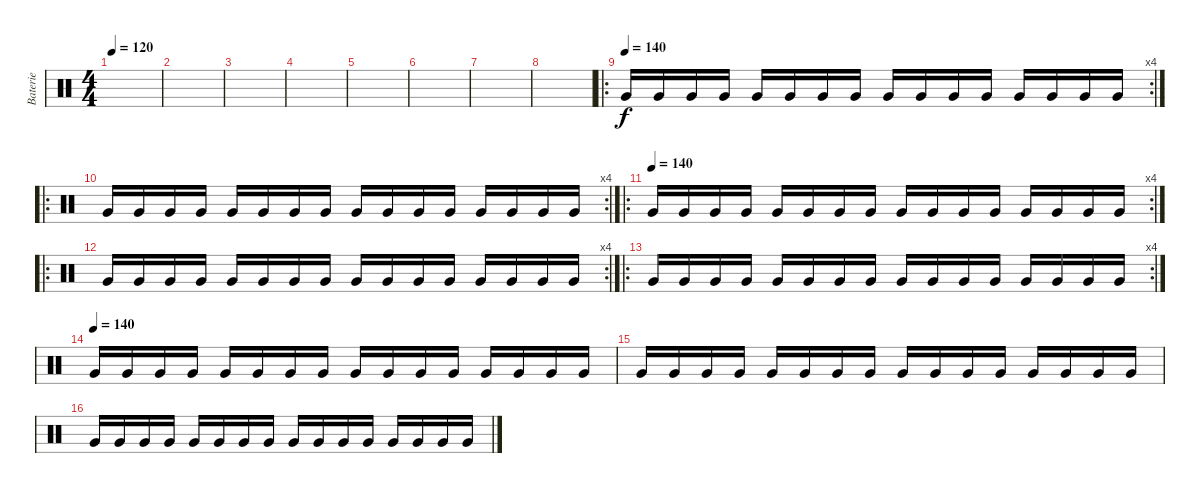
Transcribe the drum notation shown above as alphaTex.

\track ("Baterie" "Baterie") {instrument percussion}
\staff {score}
\articulation defaults
\ts (4 4)
\tempo 120
\tempo 100
\tempo 120
\clef neutral
\ks c
|
|
|
|
|
|
|
|
\ro
\rc 4
\tempo (140)
"Very Low Tom (hit)".16 "Very Low Tom (hit)".16 "Very Low Tom (hit)".16 "Very Low Tom (hit)".16 "Very Low Tom (hit)".16 "Very Low Tom (hit)".16 "Very Low Tom (hit)".16 "Very Low Tom (hit)".16 "Very Low Tom (hit)".16 "Very Low Tom (hit)".16 "Very Low Tom (hit)".16 "Very Low Tom (hit)".16 "Very Low Tom (hit)".16 "Very Low Tom (hit)".16 "Very Low Tom (hit)".16 "Very Low Tom (hit)".16 |
\ro
\rc 4 "Very Low Tom (hit)".16 "Very Low Tom (hit)".16 "Very Low Tom (hit)".16 "Very Low Tom (hit)".16 "Very Low Tom (hit)".16 "Very Low Tom (hit)".16 "Very Low Tom (hit)".16 "Very Low Tom (hit)".16 "Very Low Tom (hit)".16 "Very Low Tom (hit)".16 "Very Low Tom (hit)".16 "Very Low Tom (hit)".16 "Very Low Tom (hit)".16 "Very Low Tom (hit)".16 "Very Low Tom (hit)".16 "Very Low Tom (hit)".16
|
\ro
\rc 4
\tempo (140)
"Very Low Tom (hit)".16 "Very Low Tom (hit)".16 "Very Low Tom (hit)".16 "Very Low Tom (hit)".16 "Very Low Tom (hit)".16 "Very Low Tom (hit)".16 "Very Low Tom (hit)".16 "Very Low Tom (hit)".16 "Very Low Tom (hit)".16 "Very Low Tom (hit)".16 "Very Low Tom (hit)".16 "Very Low Tom (hit)".16 "Very Low Tom (hit)".16 "Very Low Tom (hit)".16 "Very Low Tom (hit)".16 "Very Low Tom (hit)".16 |
\ro
\rc 4 "Very Low Tom (hit)".16 "Very Low Tom (hit)".16 "Very Low Tom (hit)".16 "Very Low Tom (hit)".16 "Very Low Tom (hit)".16 "Very Low Tom (hit)".16 "Very Low Tom (hit)".16 "Very Low Tom (hit)".16 "Very Low Tom (hit)".16 "Very Low Tom (hit)".16 "Very Low Tom (hit)".16 "Very Low Tom (hit)".16 "Very Low Tom (hit)".16 "Very Low Tom (hit)".16 "Very Low Tom (hit)".16 "Very Low Tom (hit)".16
|
\ro
\rc 4 "Very Low Tom (hit)".16 "Very Low Tom (hit)".16 "Very Low Tom (hit)".16 "Very Low Tom (hit)".16 "Very Low Tom (hit)".16 "Very Low Tom (hit)".16 "Very Low Tom (hit)".16 "Very Low Tom (hit)".16 "Very Low Tom (hit)".16 "Very Low Tom (hit)".16 "Very Low Tom (hit)".16 "Very Low Tom (hit)".16 "Very Low Tom (hit)".16 "Very Low Tom (hit)".16 "Very Low Tom (hit)".16 "Very Low Tom (hit)".16
|
\tempo (140)
"Very Low Tom (hit)".16 "Very Low Tom (hit)".16 "Very Low Tom (hit)".16 "Very Low Tom (hit)".16 "Very Low Tom (hit)".16 "Very Low Tom (hit)".16 "Very Low Tom (hit)".16 "Very Low Tom (hit)".16 "Very Low Tom (hit)".16 "Very Low Tom (hit)".16 "Very Low Tom (hit)".16 "Very Low Tom (hit)".16 "Very Low Tom (hit)".16 "Very Low Tom (hit)".16 "Very Low Tom (hit)".16 "Very Low Tom (hit)".16 |
"Very Low Tom (hit)".16 "Very Low Tom (hit)".16 "Very Low Tom (hit)".16 "Very Low Tom (hit)".16 "Very Low Tom (hit)".16 "Very Low Tom (hit)".16 "Very Low Tom (hit)".16 "Very Low Tom (hit)".16 "Very Low Tom (hit)".16 "Very Low Tom (hit)".16 "Very Low Tom (hit)".16 "Very Low Tom (hit)".16 "Very Low Tom (hit)".16 "Very Low Tom (hit)".16 "Very Low Tom (hit)".16 "Very Low Tom (hit)".16 |
"Very Low Tom (hit)".16 "Very Low Tom (hit)".16 "Very Low Tom (hit)".16 "Very Low Tom (hit)".16 "Very Low Tom (hit)".16 "Very Low Tom (hit)".16 "Very Low Tom (hit)".16 "Very Low Tom (hit)".16 "Very Low Tom (hit)".16 "Very Low Tom (hit)".16 "Very Low Tom (hit)".16 "Very Low Tom (hit)".16 "Very Low Tom (hit)".16 "Very Low Tom (hit)".16 "Very Low Tom (hit)".16 "Very Low Tom (hit)".16
